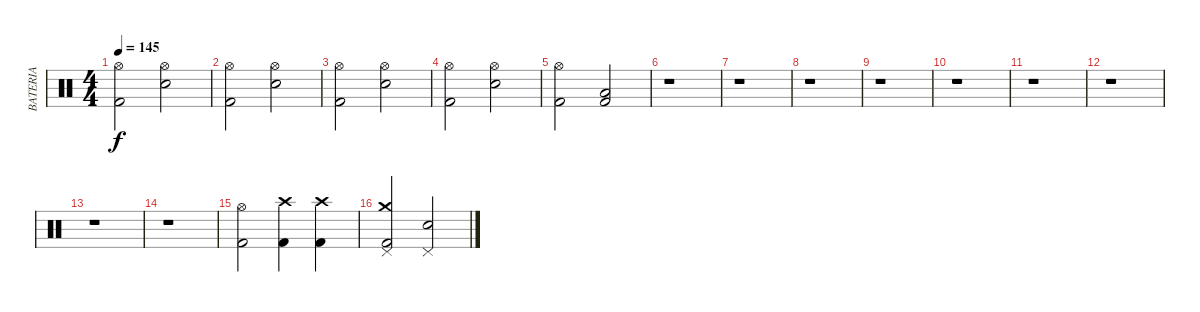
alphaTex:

\track ("BATERIA" "BATERIA") {instrument percussion}
\staff {score}
\articulation defaults
\ts (4 4)
\tempo 145
\clef neutral
\ks c
("Hi-Hat (open)" "Kick (hit) 2").2{dy f} ("Hi-Hat (open)" "Snare (hit) 2").2 |
("Hi-Hat (open)" "Kick (hit) 2").2 ("Hi-Hat (open)" "Snare (hit) 2").2 |
("Hi-Hat (open)" "Kick (hit) 2").2 ("Hi-Hat (open)" "Snare (hit) 2").2 |
("Hi-Hat (open)" "Kick (hit) 2").2 ("Hi-Hat (open)" "Snare (hit) 2").2 |
("Hi-Hat (open)" "Kick (hit) 2").2 ("Low Floor Tom (hit)" "Kick (hit) 2").2 |
r.1 |
r.1 |
r.1 |
r.1 |
r.1 |
r.1 |
r.1 |
r.1 |
r.1 |
("Hi-Hat (open)" "Kick (hit) 2").2 ("Crash high (hit)" "Kick (hit) 2").4 ("Crash high (hit)" "Kick (hit) 2").4 |
("Crash medium (hit)" "Pedal Hi-Hat (hit)" "Kick (hit) 2").2 ("Pedal Hi-Hat (hit)" "Snare (hit) 2").2
